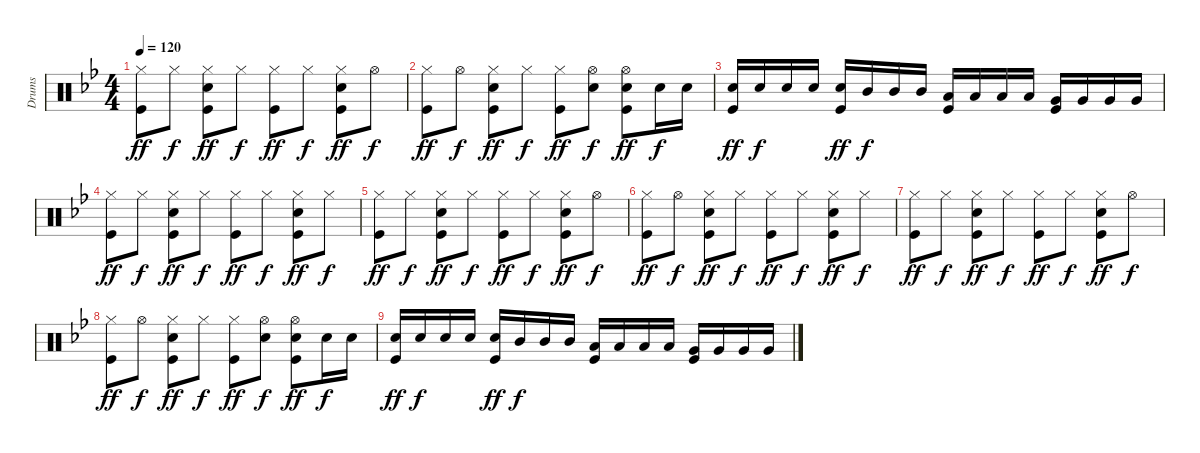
\track ("Drums" "Drums") {instrument percussion}
\staff {score}
\articulation defaults
\ts (4 4)
\tempo 120
\clef neutral
\ks bb
("Hi-Hat (closed)" "Kick (hit)").8{dy ff} "Hi-Hat (closed)".8{dy f} ("Hi-Hat (closed)" "Snare (hit) 2" "Kick (hit)").8{dy ff} "Hi-Hat (closed)".8{dy f} ("Hi-Hat (closed)" "Kick (hit)").8{dy ff} "Hi-Hat (closed)".8{dy f} ("Hi-Hat (closed)" "Snare (hit) 2" "Kick (hit)").8{dy ff} "Hi-Hat (open)".8{dy f} |
("Hi-Hat (closed)" "Kick (hit)").8{dy ff} "Hi-Hat (open)".8{dy f} ("Hi-Hat (closed)" "Snare (hit) 2" "Kick (hit)").8{dy ff} "Hi-Hat (closed)".8{dy f} ("Hi-Hat (closed)" "Kick (hit)").8{dy ff} ("Hi-Hat (open)" "Snare (hit) 2").8{dy f} ("Hi-Hat (open)" "Snare (hit) 2" "Kick (hit)").8{dy ff} "Snare (hit) 2".16{dy f} "Snare (hit) 2".16 |
("Snare (hit) 2" "Kick (hit)").16{dy ff} "Snare (hit) 2".16{dy f} "Snare (hit) 2".16 "Snare (hit) 2".16 ("Snare (hit) 2" "Kick (hit)").16{dy ff} "Mid Tom (hit)".16{dy f} "Mid Tom (hit)".16 "Mid Tom (hit)".16 ("Low Tom (hit)" "Kick (hit)").16 "Low Tom (hit)".16 "Low Tom (hit)".16 "Low Tom (hit)".16 ("Very Low Tom (hit)" "Kick (hit)").16 "Very Low Tom (hit)".16 "Very Low Tom (hit)".16 "Very Low Tom (hit)".16 |
("Hi-Hat (closed)" "Kick (hit)").8{dy ff} "Hi-Hat (closed)".8{dy f} ("Hi-Hat (closed)" "Snare (hit) 2" "Kick (hit)").8{dy ff} "Hi-Hat (closed)".8{dy f} ("Hi-Hat (closed)" "Kick (hit)").8{dy ff} "Hi-Hat (closed)".8{dy f} ("Hi-Hat (closed)" "Snare (hit) 2" "Kick (hit)").8{dy ff} "Hi-Hat (closed)".8{dy f} |
("Hi-Hat (closed)" "Kick (hit)").8{dy ff} "Hi-Hat (closed)".8{dy f} ("Hi-Hat (closed)" "Snare (hit) 2" "Kick (hit)").8{dy ff} "Hi-Hat (closed)".8{dy f} ("Hi-Hat (closed)" "Kick (hit)").8{dy ff} "Hi-Hat (closed)".8{dy f} ("Hi-Hat (closed)" "Snare (hit) 2" "Kick (hit)").8{dy ff} "Hi-Hat (open)".8{dy f} |
("Hi-Hat (closed)" "Kick (hit)").8{dy ff} "Hi-Hat (open)".8{dy f} ("Hi-Hat (closed)" "Snare (hit) 2" "Kick (hit)").8{dy ff} "Hi-Hat (closed)".8{dy f} ("Hi-Hat (closed)" "Kick (hit)").8{dy ff} "Hi-Hat (closed)".8{dy f} ("Hi-Hat (closed)" "Snare (hit) 2" "Kick (hit)").8{dy ff} "Hi-Hat (closed)".8{dy f} |
("Hi-Hat (closed)" "Kick (hit)").8{dy ff} "Hi-Hat (closed)".8{dy f} ("Hi-Hat (closed)" "Snare (hit) 2" "Kick (hit)").8{dy ff} "Hi-Hat (closed)".8{dy f} ("Hi-Hat (closed)" "Kick (hit)").8{dy ff} "Hi-Hat (closed)".8{dy f} ("Hi-Hat (closed)" "Snare (hit) 2" "Kick (hit)").8{dy ff} "Hi-Hat (open)".8{dy f} |
("Hi-Hat (closed)" "Kick (hit)").8{dy ff} "Hi-Hat (open)".8{dy f} ("Hi-Hat (closed)" "Snare (hit) 2" "Kick (hit)").8{dy ff} "Hi-Hat (closed)".8{dy f} ("Hi-Hat (closed)" "Kick (hit)").8{dy ff} ("Hi-Hat (open)" "Snare (hit) 2").8{dy f} ("Hi-Hat (open)" "Snare (hit) 2" "Kick (hit)").8{dy ff} "Snare (hit) 2".16{dy f} "Snare (hit) 2".16 |
("Snare (hit) 2" "Kick (hit)").16{dy ff} "Snare (hit) 2".16{dy f} "Snare (hit) 2".16 "Snare (hit) 2".16 ("Snare (hit) 2" "Kick (hit)").16{dy ff} "Mid Tom (hit)".16{dy f} "Mid Tom (hit)".16 "Mid Tom (hit)".16 ("Low Tom (hit)" "Kick (hit)").16 "Low Tom (hit)".16 "Low Tom (hit)".16 "Low Tom (hit)".16 ("Very Low Tom (hit)" "Kick (hit)").16 "Very Low Tom (hit)".16 "Very Low Tom (hit)".16 "Very Low Tom (hit)".16
